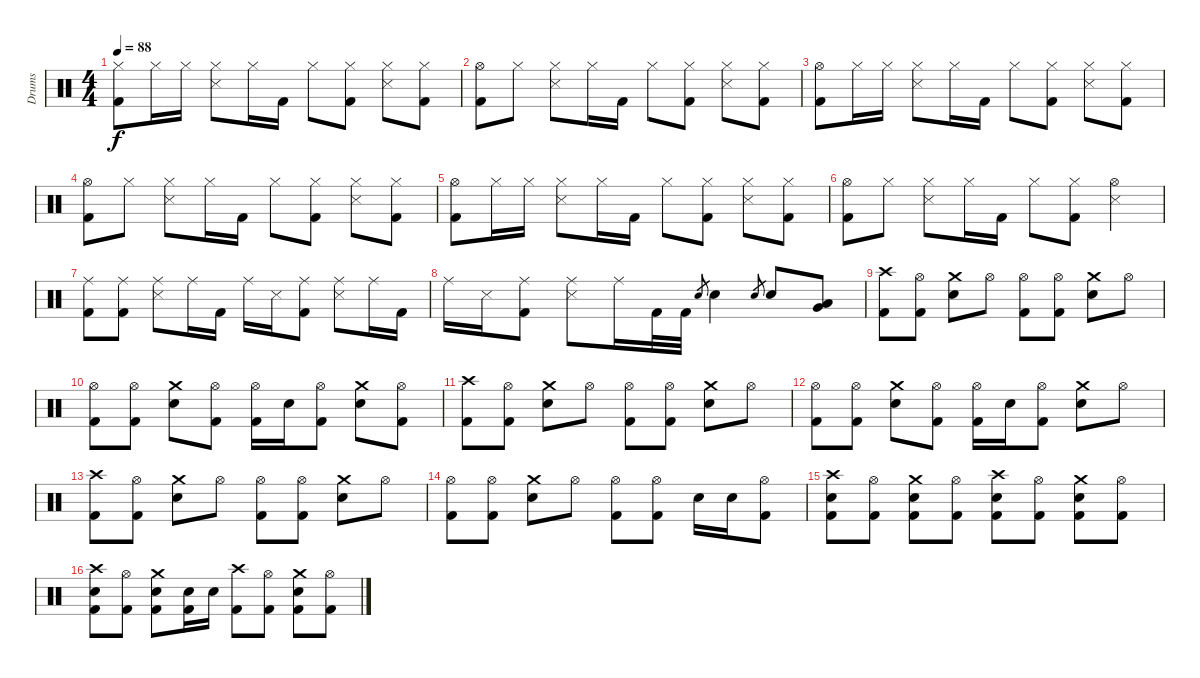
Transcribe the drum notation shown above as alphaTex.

\track ("Drums" "Drums") {instrument percussion}
\staff {score}
\articulation defaults
\ts (4 4)
\tempo 88
\clef neutral
\ks c
("Hi-Hat (closed)" "Kick (hit) 2").8{dy f} "Hi-Hat (closed)".16 "Hi-Hat (closed)".16 ("Hi-Hat (closed)" "Snare (side stick) 3").8 "Hi-Hat (closed)".16 "Kick (hit) 2".16 "Hi-Hat (closed)".8 ("Hi-Hat (closed)" "Kick (hit) 2").8 ("Hi-Hat (closed)" "Snare (side stick) 3").8 ("Hi-Hat (closed)" "Kick (hit) 2").8 |
("Hi-Hat (open)" "Kick (hit) 2").8 "Hi-Hat (closed)".8 ("Hi-Hat (closed)" "Snare (side stick) 3").8 "Hi-Hat (closed)".16 "Kick (hit) 2".16 "Hi-Hat (closed)".8 ("Hi-Hat (closed)" "Kick (hit) 2").8 ("Hi-Hat (closed)" "Snare (side stick) 3").8 ("Hi-Hat (closed)" "Kick (hit) 2").8 |
("Hi-Hat (open)" "Kick (hit) 2").8 "Hi-Hat (closed)".16 "Hi-Hat (closed)".16 ("Hi-Hat (closed)" "Snare (side stick) 3").8 "Hi-Hat (closed)".16 "Kick (hit) 2".16 "Hi-Hat (closed)".8 ("Hi-Hat (closed)" "Kick (hit) 2").8 ("Hi-Hat (closed)" "Snare (side stick) 3").8 ("Hi-Hat (closed)" "Kick (hit) 2").8 |
("Hi-Hat (open)" "Kick (hit) 2").8 "Hi-Hat (closed)".8 ("Hi-Hat (closed)" "Snare (side stick) 3").8 "Hi-Hat (closed)".16 "Kick (hit) 2".16 "Hi-Hat (closed)".8 ("Hi-Hat (closed)" "Kick (hit) 2").8 ("Hi-Hat (closed)" "Snare (side stick) 3").8 ("Hi-Hat (closed)" "Kick (hit) 2").8 |
("Hi-Hat (open)" "Kick (hit) 2").8 "Hi-Hat (closed)".16 "Hi-Hat (closed)".16 ("Hi-Hat (closed)" "Snare (side stick) 3").8 "Hi-Hat (closed)".16 "Kick (hit) 2".16 "Hi-Hat (closed)".8 ("Hi-Hat (closed)" "Kick (hit) 2").8 ("Hi-Hat (closed)" "Snare (side stick) 3").8 ("Hi-Hat (closed)" "Kick (hit) 2").8 |
("Hi-Hat (open)" "Kick (hit) 2").8 "Hi-Hat (closed)".8 ("Hi-Hat (closed)" "Snare (side stick) 3").8 "Hi-Hat (closed)".16 "Kick (hit) 2".16 "Hi-Hat (closed)".8 ("Hi-Hat (closed)" "Kick (hit) 2").8 ("Hi-Hat (open)" "Snare (side stick) 3").4 |
("Ride (middle)" "Kick (hit) 2").8 ("Ride (middle)" "Kick (hit) 2").8 ("Ride (middle)" "Snare (side stick) 3").8 "Ride (middle)".16 "Kick (hit) 2".16 "Ride (middle)".16 "Snare (side stick) 3".16 ("Ride (middle)" "Kick (hit) 2").8 ("Ride (middle)" "Snare (side stick) 3").8 "Ride (middle)".16 "Kick (hit) 2".16 |
"Ride (middle)".16 "Snare (side stick) 3".16 ("Ride (middle)" "Kick (hit) 2").8 ("Ride (middle)" "Snare (side stick) 3").8 "Ride (middle)".16 "Kick (hit) 2".32 "Kick (hit) 2".32 "Snare (hit) 2".8{gr} "Snare (hit) 2".4 "Snare (hit) 2".8{gr} "Snare (hit) 2".8 ("Low Tom (hit)" "Very Low Tom (hit)").8 |
("Crash high (hit)" "Kick (hit) 2").8 ("Hi-Hat (open)" "Kick (hit) 2").8 ("Crash medium (hit)" "Snare (hit) 2").8 "Hi-Hat (open)".8 ("Hi-Hat (open)" "Kick (hit) 2").8 ("Hi-Hat (open)" "Kick (hit) 2").8 ("Crash medium (hit)" "Snare (hit) 2").8 "Hi-Hat (open)".8 |
("Hi-Hat (open)" "Kick (hit) 2").8 ("Hi-Hat (open)" "Kick (hit) 2").8 ("Crash medium (hit)" "Snare (hit) 2").8 ("Hi-Hat (open)" "Kick (hit) 2").8 ("Hi-Hat (open)" "Kick (hit) 2").16 "Snare (hit) 2".16 ("Hi-Hat (open)" "Kick (hit) 2").8 ("Crash medium (hit)" "Snare (hit) 2").8 ("Hi-Hat (open)" "Kick (hit) 2").8 |
("Crash high (hit)" "Kick (hit) 2").8 ("Hi-Hat (open)" "Kick (hit) 2").8 ("Crash medium (hit)" "Snare (hit) 2").8 "Hi-Hat (open)".8 ("Hi-Hat (open)" "Kick (hit) 2").8 ("Hi-Hat (open)" "Kick (hit) 2").8 ("Crash medium (hit)" "Snare (hit) 2").8 "Hi-Hat (open)".8 |
("Hi-Hat (open)" "Kick (hit) 2").8 ("Hi-Hat (open)" "Kick (hit) 2").8 ("Crash medium (hit)" "Snare (hit) 2").8 ("Hi-Hat (open)" "Kick (hit) 2").8 ("Hi-Hat (open)" "Kick (hit) 2").16 "Snare (hit) 2".16 ("Hi-Hat (open)" "Kick (hit) 2").8 ("Crash medium (hit)" "Snare (hit) 2").8 "Hi-Hat (open)".8 |
("Crash high (hit)" "Kick (hit) 2").8 ("Hi-Hat (open)" "Kick (hit) 2").8 ("Crash medium (hit)" "Snare (hit) 2").8 "Hi-Hat (open)".8 ("Hi-Hat (open)" "Kick (hit) 2").8 ("Hi-Hat (open)" "Kick (hit) 2").8 ("Crash medium (hit)" "Snare (hit) 2").8 "Hi-Hat (open)".8 |
("Hi-Hat (open)" "Kick (hit) 2").8 ("Hi-Hat (open)" "Kick (hit) 2").8 ("Crash medium (hit)" "Snare (hit) 2").8 "Hi-Hat (open)".8 ("Hi-Hat (open)" "Kick (hit) 2").8 ("Hi-Hat (open)" "Kick (hit) 2").8 "Snare (hit) 2".16 "Snare (hit) 2".16 ("Hi-Hat (open)" "Kick (hit) 2").8 |
("Crash high (hit)" "Snare (hit) 2" "Kick (hit) 2").8 ("Hi-Hat (open)" "Kick (hit) 2").8 ("Crash medium (hit)" "Snare (hit) 2" "Kick (hit) 2").8 ("Hi-Hat (open)" "Kick (hit) 2").8 ("Crash high (hit)" "Snare (hit) 2" "Kick (hit) 2").8 ("Hi-Hat (open)" "Kick (hit) 2").8 ("Crash medium (hit)" "Snare (hit) 2" "Kick (hit) 2").8 ("Hi-Hat (open)" "Kick (hit) 2").8 |
("Crash high (hit)" "Snare (hit) 2" "Kick (hit) 2").8 ("Hi-Hat (open)" "Kick (hit) 2").8 ("Crash medium (hit)" "Snare (hit) 2" "Kick (hit) 2").8 ("Snare (hit) 2" "Kick (hit) 2").16 "Snare (hit) 2".16 ("Crash high (hit)" "Kick (hit) 2").8 ("Hi-Hat (open)" "Kick (hit) 2").8 ("Crash medium (hit)" "Snare (hit) 2" "Kick (hit) 2").8 ("Hi-Hat (open)" "Kick (hit) 2").8
